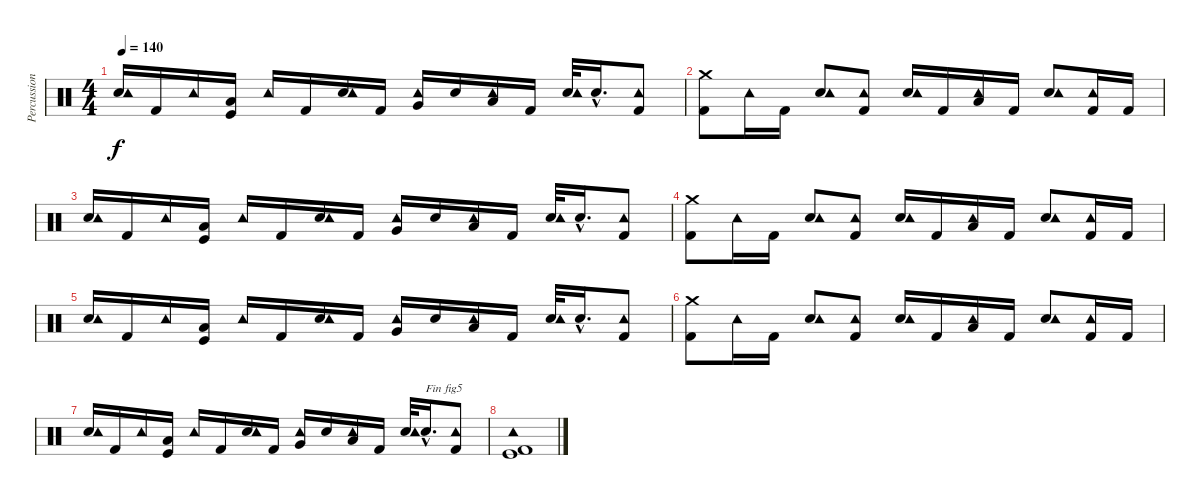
\track ("Percussions" "Percussion") {instrument percussion}
\staff {score}
\articulation defaults
\ts (4 4)
\tempo 140
\clef neutral
\ks c
("Electric Snare (hit)" "Tambourine (hit)").16{dy f} "Kick (hit) 2".16 "Tambourine (hit)".16 ("Kick (hit)" "Low Floor Tom (hit)").16 "Tambourine (hit)".16 "Kick (hit) 2".16 ("Electric Snare (hit)" "Tambourine (hit)").16 "Kick (hit) 2".16 ("Very Low Tom (hit)" "Tambourine (hit)").16 "Electric Snare (hit)".16 ("Low Tom (hit)" "Tambourine (hit)").16 "Kick (hit) 2".16 ("Electric Snare (hit)" "Tambourine (hit)").32 "Electric Snare (hit)"{hac}.16{d} ("Kick (hit) 2" "Tambourine (hit)").8 |
("Kick (hit) 2" "Crash medium (hit)").8 "Tambourine (hit)".16 "Kick (hit) 2".16 ("Electric Snare (hit)" "Tambourine (hit)").8 ("Kick (hit) 2" "Tambourine (hit)").8 ("Electric Snare (hit)" "Tambourine (hit)").16 "Kick (hit) 2".16 ("Low Floor Tom (hit)" "Tambourine (hit)").16 "Kick (hit) 2".16 ("Electric Snare (hit)" "Tambourine (hit)").8 ("Kick (hit) 2" "Tambourine (hit)").16 "Kick (hit) 2".16 |
("Electric Snare (hit)" "Tambourine (hit)").16 "Kick (hit) 2".16 "Tambourine (hit)".16 ("Kick (hit)" "Low Floor Tom (hit)").16 "Tambourine (hit)".16 "Kick (hit) 2".16 ("Electric Snare (hit)" "Tambourine (hit)").16 "Kick (hit) 2".16 ("Very Low Tom (hit)" "Tambourine (hit)").16 "Electric Snare (hit)".16 ("Low Tom (hit)" "Tambourine (hit)").16 "Kick (hit) 2".16 ("Electric Snare (hit)" "Tambourine (hit)").32 "Electric Snare (hit)"{hac}.16{d} ("Kick (hit) 2" "Tambourine (hit)").8 |
("Kick (hit) 2" "Crash medium (hit)").8 "Tambourine (hit)".16 "Kick (hit) 2".16 ("Electric Snare (hit)" "Tambourine (hit)").8 ("Kick (hit) 2" "Tambourine (hit)").8 ("Electric Snare (hit)" "Tambourine (hit)").16 "Kick (hit) 2".16 ("Low Floor Tom (hit)" "Tambourine (hit)").16 "Kick (hit) 2".16 ("Electric Snare (hit)" "Tambourine (hit)").8 ("Kick (hit) 2" "Tambourine (hit)").16 "Kick (hit) 2".16 |
("Electric Snare (hit)" "Tambourine (hit)").16 "Kick (hit) 2".16 "Tambourine (hit)".16 ("Kick (hit)" "Low Floor Tom (hit)").16 "Tambourine (hit)".16 "Kick (hit) 2".16 ("Electric Snare (hit)" "Tambourine (hit)").16 "Kick (hit) 2".16 ("Very Low Tom (hit)" "Tambourine (hit)").16 "Electric Snare (hit)".16 ("Low Tom (hit)" "Tambourine (hit)").16 "Kick (hit) 2".16 ("Electric Snare (hit)" "Tambourine (hit)").32 "Electric Snare (hit)"{hac}.16{d} ("Kick (hit) 2" "Tambourine (hit)").8 |
("Kick (hit) 2" "Crash medium (hit)").8 "Tambourine (hit)".16 "Kick (hit) 2".16 ("Electric Snare (hit)" "Tambourine (hit)").8 ("Kick (hit) 2" "Tambourine (hit)").8 ("Electric Snare (hit)" "Tambourine (hit)").16 "Kick (hit) 2".16 ("Low Floor Tom (hit)" "Tambourine (hit)").16 "Kick (hit) 2".16 ("Electric Snare (hit)" "Tambourine (hit)").8 ("Kick (hit) 2" "Tambourine (hit)").16 "Kick (hit) 2".16 |
("Electric Snare (hit)" "Tambourine (hit)").16 "Kick (hit) 2".16 "Tambourine (hit)".16 ("Kick (hit)" "Low Floor Tom (hit)").16 "Tambourine (hit)".16 "Kick (hit) 2".16 ("Electric Snare (hit)" "Tambourine (hit)").16 "Kick (hit) 2".16 ("Very Low Tom (hit)" "Tambourine (hit)").16 "Electric Snare (hit)".16 ("Low Tom (hit)" "Tambourine (hit)").16 "Kick (hit) 2".16 ("Electric Snare (hit)" "Tambourine (hit)").32 "Electric Snare (hit)"{hac}.16{d txt "Fin fig5"} ("Kick (hit) 2" "Tambourine (hit)").8 |
("Kick (hit) 2" "Kick (hit)" "Tambourine (hit)").1
